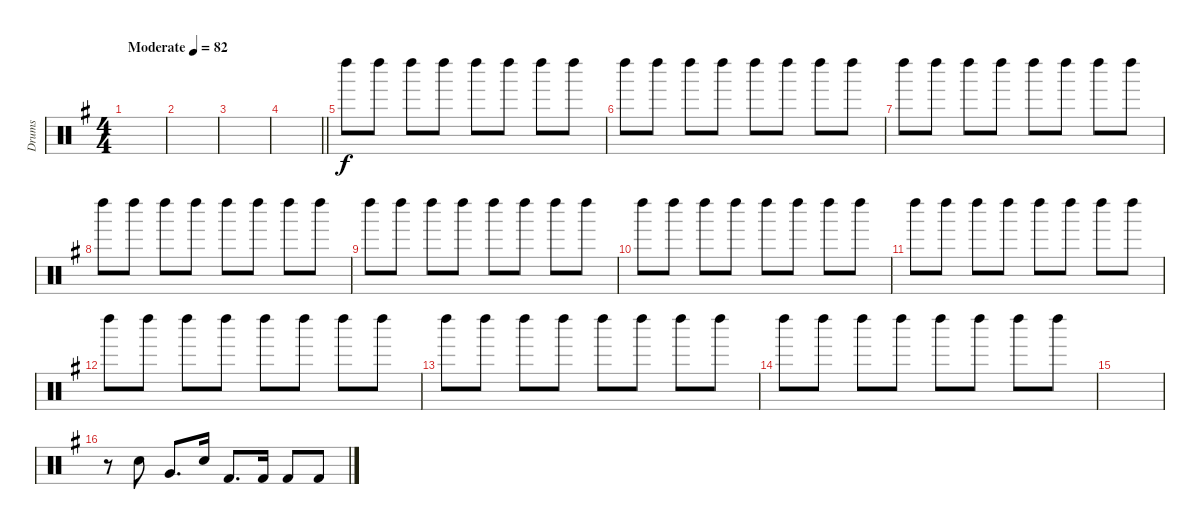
\track ("Drums" "Drums") {instrument percussion}
\staff {score}
\articulation defaults
\ts (4 4)
\tempo (82 "Moderate")
\clef neutral
\ks g
|
|
|
\barLineRight lightlight
|
"Left Maraca (hit)".8 "Left Maraca (hit)".8 "Left Maraca (hit)".8 "Left Maraca (hit)".8 "Left Maraca (hit)".8 "Left Maraca (hit)".8 "Left Maraca (hit)".8 "Left Maraca (hit)".8 |
"Left Maraca (hit)".8 "Left Maraca (hit)".8 "Left Maraca (hit)".8 "Left Maraca (hit)".8 "Left Maraca (hit)".8 "Left Maraca (hit)".8 "Left Maraca (hit)".8 "Left Maraca (hit)".8 |
"Left Maraca (hit)".8 "Left Maraca (hit)".8 "Left Maraca (hit)".8 "Left Maraca (hit)".8 "Left Maraca (hit)".8 "Left Maraca (hit)".8 "Left Maraca (hit)".8 "Left Maraca (hit)".8 |
"Left Maraca (hit)".8 "Left Maraca (hit)".8 "Left Maraca (hit)".8 "Left Maraca (hit)".8 "Left Maraca (hit)".8 "Left Maraca (hit)".8 "Left Maraca (hit)".8 "Left Maraca (hit)".8 |
"Left Maraca (hit)".8 "Left Maraca (hit)".8 "Left Maraca (hit)".8 "Left Maraca (hit)".8 "Left Maraca (hit)".8 "Left Maraca (hit)".8 "Left Maraca (hit)".8 "Left Maraca (hit)".8 |
"Left Maraca (hit)".8 "Left Maraca (hit)".8 "Left Maraca (hit)".8 "Left Maraca (hit)".8 "Left Maraca (hit)".8 "Left Maraca (hit)".8 "Left Maraca (hit)".8 "Left Maraca (hit)".8 |
"Left Maraca (hit)".8 "Left Maraca (hit)".8 "Left Maraca (hit)".8 "Left Maraca (hit)".8 "Left Maraca (hit)".8 "Left Maraca (hit)".8 "Left Maraca (hit)".8 "Left Maraca (hit)".8 |
"Left Maraca (hit)".8 "Left Maraca (hit)".8 "Left Maraca (hit)".8 "Left Maraca (hit)".8 "Left Maraca (hit)".8 "Left Maraca (hit)".8 "Left Maraca (hit)".8 "Left Maraca (hit)".8 |
"Left Maraca (hit)".8 "Left Maraca (hit)".8 "Left Maraca (hit)".8 "Left Maraca (hit)".8 "Left Maraca (hit)".8 "Left Maraca (hit)".8 "Left Maraca (hit)".8 "Left Maraca (hit)".8 |
"Left Maraca (hit)".8 "Left Maraca (hit)".8 "Left Maraca (hit)".8 "Left Maraca (hit)".8 "Left Maraca (hit)".8 "Left Maraca (hit)".8 "Left Maraca (hit)".8 "Left Maraca (hit)".8 |
|
r.8 "Snare (hit) 2".8 "Very Low Tom (hit)".8{d} "Snare (hit) 2".16 "Kick (hit) 2".8{d} "Kick (hit) 2".16 "Kick (hit) 2".8 "Kick (hit) 2".8
